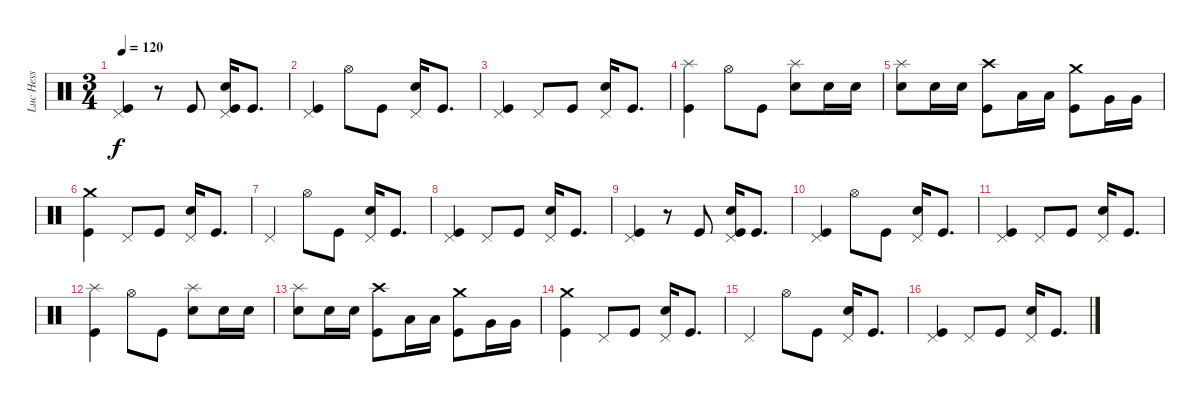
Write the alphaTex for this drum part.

\track ("Luc Hess" "Luc Hess") {instrument percussion}
\staff {score}
\articulation defaults
\ts (3 4)
\tempo 120
\clef neutral
\ks c
("Pedal Hi-Hat (hit)" "Kick (hit)").4{dy f} r.8 "Kick (hit)".8 ("Snare (hit) 2" "Pedal Hi-Hat (hit)" "Kick (hit)").16 "Kick (hit)".8{d} |
("Pedal Hi-Hat (hit)" "Kick (hit)").4 "Hi-Hat (open)".8 "Kick (hit)".8 ("Snare (hit) 2" "Pedal Hi-Hat (hit)").16 "Kick (hit)".8{d} |
("Pedal Hi-Hat (hit)" "Kick (hit)").4 "Pedal Hi-Hat (hit)".8 "Kick (hit)".8 ("Snare (hit) 2" "Pedal Hi-Hat (hit)").16 "Kick (hit)".8{d} |
("Splash (hit)" "Kick (hit)").4 "Hi-Hat (open)".8 "Kick (hit)".8 ("Snare (hit) 2" "Splash (hit)").8 "Snare (hit) 2".16 "Snare (hit) 2".16 |
("Snare (hit) 2" "Splash (hit)").8 "Snare (hit) 2".16 "Snare (hit) 2".16 ("Crash high (hit)" "Kick (hit)").8 "Low Tom (hit)".16 "Low Tom (hit)".16 ("Crash medium (hit)" "Kick (hit)").8 "Very Low Tom (hit)".16 "Very Low Tom (hit)".16 |
("Crash medium (hit)" "Kick (hit)").4 "Pedal Hi-Hat (hit)".8 "Kick (hit)".8 ("Snare (hit) 2" "Pedal Hi-Hat (hit)").16 "Kick (hit)".8{d} |
"Pedal Hi-Hat (hit)".4 "Hi-Hat (open)".8 "Kick (hit)".8 ("Snare (hit) 2" "Pedal Hi-Hat (hit)").16 "Kick (hit)".8{d} |
("Pedal Hi-Hat (hit)" "Kick (hit)").4 "Pedal Hi-Hat (hit)".8 "Kick (hit)".8 ("Snare (hit) 2" "Pedal Hi-Hat (hit)").16 "Kick (hit)".8{d} |
("Pedal Hi-Hat (hit)" "Kick (hit)").4 r.8 "Kick (hit)".8 ("Snare (hit) 2" "Pedal Hi-Hat (hit)" "Kick (hit)").16 "Kick (hit)".8{d} |
("Pedal Hi-Hat (hit)" "Kick (hit)").4 "Hi-Hat (open)".8 "Kick (hit)".8 ("Snare (hit) 2" "Pedal Hi-Hat (hit)").16 "Kick (hit)".8{d} |
("Pedal Hi-Hat (hit)" "Kick (hit)").4 "Pedal Hi-Hat (hit)".8 "Kick (hit)".8 ("Snare (hit) 2" "Pedal Hi-Hat (hit)").16 "Kick (hit)".8{d} |
("Splash (hit)" "Kick (hit)").4 "Hi-Hat (open)".8 "Kick (hit)".8 ("Snare (hit) 2" "Splash (hit)").8 "Snare (hit) 2".16 "Snare (hit) 2".16 |
("Snare (hit) 2" "Splash (hit)").8 "Snare (hit) 2".16 "Snare (hit) 2".16 ("Crash high (hit)" "Kick (hit)").8 "Low Tom (hit)".16 "Low Tom (hit)".16 ("Crash medium (hit)" "Kick (hit)").8 "Very Low Tom (hit)".16 "Very Low Tom (hit)".16 |
("Crash medium (hit)" "Kick (hit)").4 "Pedal Hi-Hat (hit)".8 "Kick (hit)".8 ("Snare (hit) 2" "Pedal Hi-Hat (hit)").16 "Kick (hit)".8{d} |
"Pedal Hi-Hat (hit)".4 "Hi-Hat (open)".8 "Kick (hit)".8 ("Snare (hit) 2" "Pedal Hi-Hat (hit)").16 "Kick (hit)".8{d} |
("Pedal Hi-Hat (hit)" "Kick (hit)").4 "Pedal Hi-Hat (hit)".8 "Kick (hit)".8 ("Snare (hit) 2" "Pedal Hi-Hat (hit)").16 "Kick (hit)".8{d}
